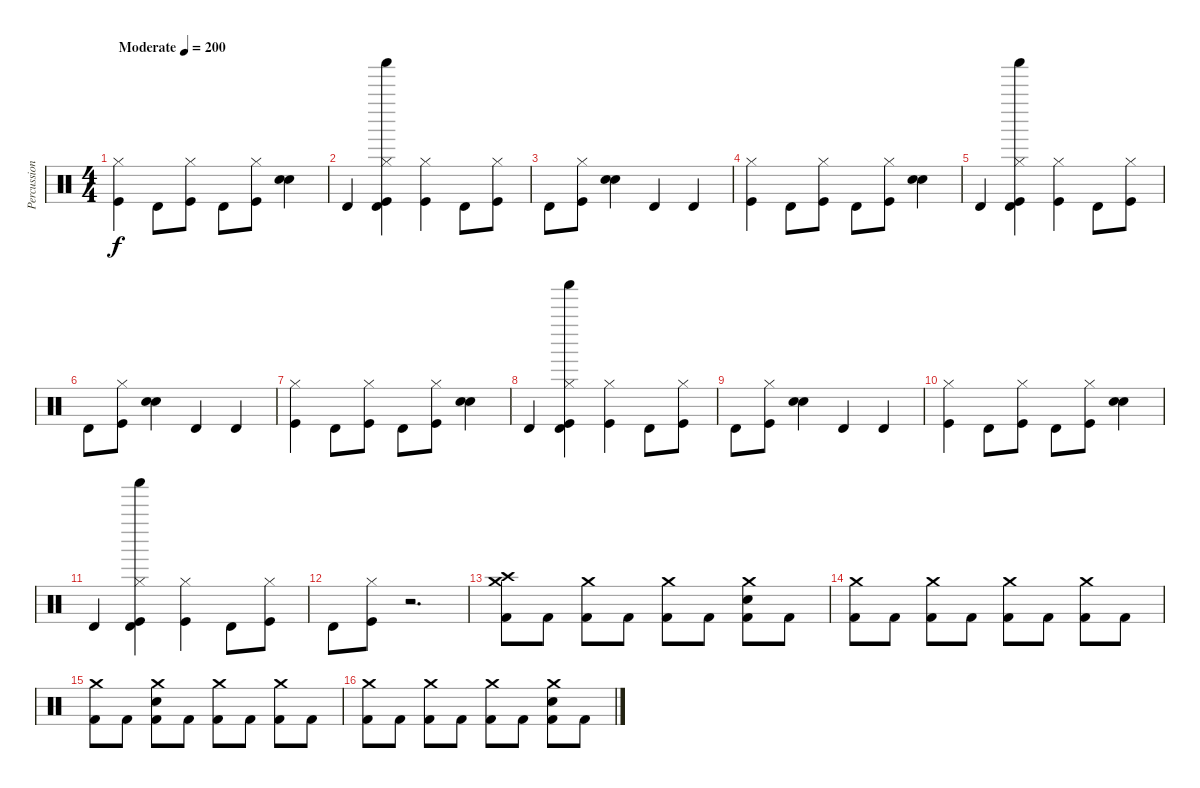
\track ("Percussion" "Percussion") {instrument percussion}
\staff {score}
\articulation defaults
\ts (4 4)
\tempo (200 "Moderate")
\clef neutral
\ks c
("Kick (hit)" "Hi-Hat (closed)").4{dy f} "Timbale high (hit)".8 ("Kick (hit)" "Hi-Hat (closed)").8 "Timbale high (hit)".8 ("Kick (hit)" "Hi-Hat (closed)").8 ("Hand Clap (hit)" "Snare (hit) 2").4 |
"Timbale high (hit)".4 ("Kick (hit)" "Shaker (hit)" "Timbale high (hit)" "Hi-Hat (closed)").4 ("Kick (hit)" "Hi-Hat (closed)").4 "Timbale high (hit)".8 ("Kick (hit)" "Hi-Hat (closed)").8 |
"Timbale high (hit)".8 ("Kick (hit)" "Hi-Hat (closed)").8 ("Hand Clap (hit)" "Snare (hit) 2").4 "Timbale high (hit)".4 "Timbale high (hit)".4 |
("Kick (hit)" "Hi-Hat (closed)").4 "Timbale high (hit)".8 ("Kick (hit)" "Hi-Hat (closed)").8 "Timbale high (hit)".8 ("Kick (hit)" "Hi-Hat (closed)").8 ("Hand Clap (hit)" "Snare (hit) 2").4 |
"Timbale high (hit)".4 ("Kick (hit)" "Shaker (hit)" "Timbale high (hit)" "Hi-Hat (closed)").4 ("Kick (hit)" "Hi-Hat (closed)").4 "Timbale high (hit)".8 ("Kick (hit)" "Hi-Hat (closed)").8 |
"Timbale high (hit)".8 ("Kick (hit)" "Hi-Hat (closed)").8 ("Hand Clap (hit)" "Snare (hit) 2").4 "Timbale high (hit)".4 "Timbale high (hit)".4 |
("Kick (hit)" "Hi-Hat (closed)").4 "Timbale high (hit)".8 ("Kick (hit)" "Hi-Hat (closed)").8 "Timbale high (hit)".8 ("Kick (hit)" "Hi-Hat (closed)").8 ("Hand Clap (hit)" "Snare (hit) 2").4 |
"Timbale high (hit)".4 ("Kick (hit)" "Shaker (hit)" "Timbale high (hit)" "Hi-Hat (closed)").4 ("Kick (hit)" "Hi-Hat (closed)").4 "Timbale high (hit)".8 ("Kick (hit)" "Hi-Hat (closed)").8 |
"Timbale high (hit)".8 ("Kick (hit)" "Hi-Hat (closed)").8 ("Hand Clap (hit)" "Snare (hit) 2").4 "Timbale high (hit)".4 "Timbale high (hit)".4 |
("Kick (hit)" "Hi-Hat (closed)").4 "Timbale high (hit)".8 ("Kick (hit)" "Hi-Hat (closed)").8 "Timbale high (hit)".8 ("Kick (hit)" "Hi-Hat (closed)").8 ("Hand Clap (hit)" "Snare (hit) 2").4 |
"Timbale high (hit)".4 ("Kick (hit)" "Shaker (hit)" "Timbale high (hit)" "Hi-Hat (closed)").4 ("Kick (hit)" "Hi-Hat (closed)").4 "Timbale high (hit)".8 ("Kick (hit)" "Hi-Hat (closed)").8 |
"Timbale high (hit)".8 ("Kick (hit)" "Hi-Hat (closed)").8 r.2{d} |
("Crash medium (hit)" "Crash high (hit)" "Kick (hit) 2").8 "Kick (hit) 2".8 ("Crash medium (hit)" "Kick (hit) 2").8 "Kick (hit) 2".8 ("Crash medium (hit)" "Kick (hit) 2").8 "Kick (hit) 2".8 ("Crash medium (hit)" "Electric Snare (hit)" "Kick (hit) 2").8 "Kick (hit) 2".8 |
("Crash medium (hit)" "Kick (hit) 2").8 "Kick (hit) 2".8 ("Crash medium (hit)" "Kick (hit) 2").8 "Kick (hit) 2".8 ("Crash medium (hit)" "Kick (hit) 2").8 "Kick (hit) 2".8 ("Crash medium (hit)" "Kick (hit) 2").8 "Kick (hit) 2".8 |
("Crash medium (hit)" "Kick (hit) 2").8 "Kick (hit) 2".8 ("Crash medium (hit)" "Electric Snare (hit)" "Kick (hit) 2").8 "Kick (hit) 2".8 ("Crash medium (hit)" "Kick (hit) 2").8 "Kick (hit) 2".8 ("Crash medium (hit)" "Kick (hit) 2").8 "Kick (hit) 2".8 |
("Crash medium (hit)" "Kick (hit) 2").8 "Kick (hit) 2".8 ("Crash medium (hit)" "Kick (hit) 2").8 "Kick (hit) 2".8 ("Crash medium (hit)" "Kick (hit) 2").8 "Kick (hit) 2".8 ("Crash medium (hit)" "Electric Snare (hit)" "Kick (hit) 2").8 "Kick (hit) 2".8
